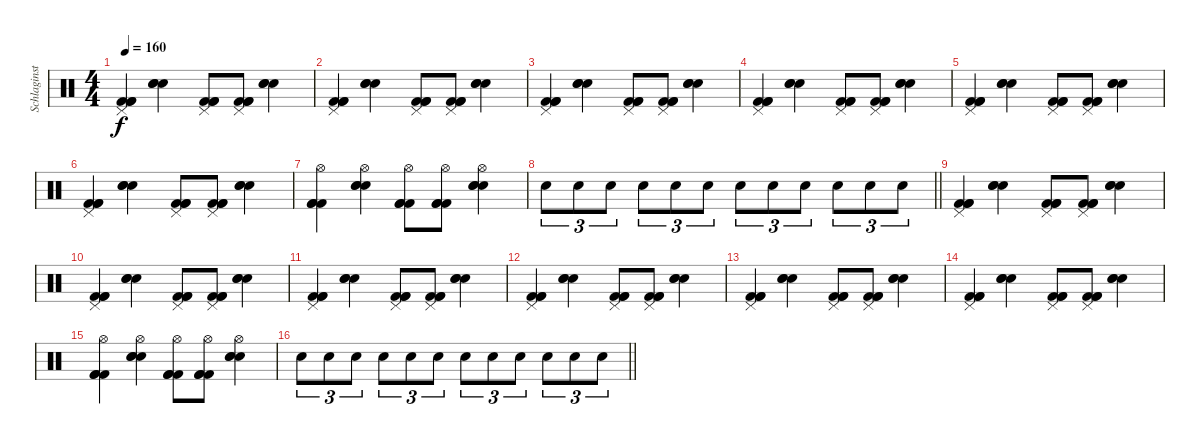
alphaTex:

\track ("Schlaginstrumente - Auswahl" "Schlaginst") {instrument percussion}
\staff {score}
\articulation defaults
\ts (4 4)
\tempo 160
\clef neutral
\ks c
("Kick (hit) 2" "Kick (hit) 2" "Kick (hit) 2" "Pedal Hi-Hat (hit)").4{dy f} ("Snare (hit) 2" "Snare (hit) 2" "Snare (hit) 2").4 ("Kick (hit) 2" "Kick (hit) 2" "Kick (hit) 2" "Pedal Hi-Hat (hit)").8 ("Kick (hit) 2" "Kick (hit) 2" "Kick (hit) 2" "Pedal Hi-Hat (hit)").8 ("Snare (hit) 2" "Snare (hit) 2" "Snare (hit) 2").4 |
("Kick (hit) 2" "Kick (hit) 2" "Kick (hit) 2" "Pedal Hi-Hat (hit)").4 ("Snare (hit) 2" "Snare (hit) 2" "Snare (hit) 2").4 ("Kick (hit) 2" "Kick (hit) 2" "Kick (hit) 2" "Pedal Hi-Hat (hit)").8 ("Kick (hit) 2" "Kick (hit) 2" "Kick (hit) 2" "Pedal Hi-Hat (hit)").8 ("Snare (hit) 2" "Snare (hit) 2" "Snare (hit) 2").4 |
("Kick (hit) 2" "Kick (hit) 2" "Kick (hit) 2" "Pedal Hi-Hat (hit)").4 ("Snare (hit) 2" "Snare (hit) 2" "Snare (hit) 2").4 ("Kick (hit) 2" "Kick (hit) 2" "Kick (hit) 2" "Pedal Hi-Hat (hit)").8 ("Kick (hit) 2" "Kick (hit) 2" "Kick (hit) 2" "Pedal Hi-Hat (hit)").8 ("Snare (hit) 2" "Snare (hit) 2" "Snare (hit) 2").4 |
("Kick (hit) 2" "Kick (hit) 2" "Kick (hit) 2" "Pedal Hi-Hat (hit)").4 ("Snare (hit) 2" "Snare (hit) 2" "Snare (hit) 2").4 ("Kick (hit) 2" "Kick (hit) 2" "Kick (hit) 2" "Pedal Hi-Hat (hit)").8 ("Kick (hit) 2" "Kick (hit) 2" "Kick (hit) 2" "Pedal Hi-Hat (hit)").8 ("Snare (hit) 2" "Snare (hit) 2" "Snare (hit) 2").4 |
("Kick (hit) 2" "Kick (hit) 2" "Kick (hit) 2" "Pedal Hi-Hat (hit)").4 ("Snare (hit) 2" "Snare (hit) 2" "Snare (hit) 2").4 ("Kick (hit) 2" "Kick (hit) 2" "Kick (hit) 2" "Pedal Hi-Hat (hit)").8 ("Kick (hit) 2" "Kick (hit) 2" "Kick (hit) 2" "Pedal Hi-Hat (hit)").8 ("Snare (hit) 2" "Snare (hit) 2" "Snare (hit) 2").4 |
("Kick (hit) 2" "Kick (hit) 2" "Kick (hit) 2" "Pedal Hi-Hat (hit)").4 ("Snare (hit) 2" "Snare (hit) 2" "Snare (hit) 2").4 ("Kick (hit) 2" "Kick (hit) 2" "Kick (hit) 2" "Pedal Hi-Hat (hit)").8 ("Kick (hit) 2" "Kick (hit) 2" "Kick (hit) 2" "Pedal Hi-Hat (hit)").8 ("Snare (hit) 2" "Snare (hit) 2" "Snare (hit) 2").4 |
("Kick (hit) 2" "Kick (hit) 2" "Kick (hit) 2" "Hi-Hat (open)").4 ("Snare (hit) 2" "Snare (hit) 2" "Snare (hit) 2" "Hi-Hat (open)").4 ("Kick (hit) 2" "Kick (hit) 2" "Kick (hit) 2" "Hi-Hat (open)").8 ("Kick (hit) 2" "Kick (hit) 2" "Kick (hit) 2" "Hi-Hat (open)").8 ("Snare (hit) 2" "Snare (hit) 2" "Snare (hit) 2" "Hi-Hat (open)").4 |
\barLineRight lightlight "Snare (hit) 2".8{tu (3 2)} "Snare (hit) 2".8{tu (3 2)} "Snare (hit) 2".8{tu (3 2)} "Snare (hit) 2".8{tu (3 2)} "Snare (hit) 2".8{tu (3 2)} "Snare (hit) 2".8{tu (3 2)} "Snare (hit) 2".8{tu (3 2)} "Snare (hit) 2".8{tu (3 2)} "Snare (hit) 2".8{tu (3 2)} "Snare (hit) 2".8{tu (3 2)} "Snare (hit) 2".8{tu (3 2)} "Snare (hit) 2".8{tu (3 2)}
|
("Kick (hit) 2" "Kick (hit) 2" "Kick (hit) 2" "Pedal Hi-Hat (hit)").4 ("Snare (hit) 2" "Snare (hit) 2" "Snare (hit) 2").4 ("Kick (hit) 2" "Kick (hit) 2" "Kick (hit) 2" "Pedal Hi-Hat (hit)").8 ("Kick (hit) 2" "Kick (hit) 2" "Kick (hit) 2" "Pedal Hi-Hat (hit)").8 ("Snare (hit) 2" "Snare (hit) 2" "Snare (hit) 2").4 |
("Kick (hit) 2" "Kick (hit) 2" "Kick (hit) 2" "Pedal Hi-Hat (hit)").4 ("Snare (hit) 2" "Snare (hit) 2" "Snare (hit) 2").4 ("Kick (hit) 2" "Kick (hit) 2" "Kick (hit) 2" "Pedal Hi-Hat (hit)").8 ("Kick (hit) 2" "Kick (hit) 2" "Kick (hit) 2" "Pedal Hi-Hat (hit)").8 ("Snare (hit) 2" "Snare (hit) 2" "Snare (hit) 2").4 |
("Kick (hit) 2" "Kick (hit) 2" "Kick (hit) 2" "Pedal Hi-Hat (hit)").4 ("Snare (hit) 2" "Snare (hit) 2" "Snare (hit) 2").4 ("Kick (hit) 2" "Kick (hit) 2" "Kick (hit) 2" "Pedal Hi-Hat (hit)").8 ("Kick (hit) 2" "Kick (hit) 2" "Kick (hit) 2" "Pedal Hi-Hat (hit)").8 ("Snare (hit) 2" "Snare (hit) 2" "Snare (hit) 2").4 |
("Kick (hit) 2" "Kick (hit) 2" "Kick (hit) 2" "Pedal Hi-Hat (hit)").4 ("Snare (hit) 2" "Snare (hit) 2" "Snare (hit) 2").4 ("Kick (hit) 2" "Kick (hit) 2" "Kick (hit) 2" "Pedal Hi-Hat (hit)").8 ("Kick (hit) 2" "Kick (hit) 2" "Kick (hit) 2" "Pedal Hi-Hat (hit)").8 ("Snare (hit) 2" "Snare (hit) 2" "Snare (hit) 2").4 |
("Kick (hit) 2" "Kick (hit) 2" "Kick (hit) 2" "Pedal Hi-Hat (hit)").4 ("Snare (hit) 2" "Snare (hit) 2" "Snare (hit) 2").4 ("Kick (hit) 2" "Kick (hit) 2" "Kick (hit) 2" "Pedal Hi-Hat (hit)").8 ("Kick (hit) 2" "Kick (hit) 2" "Kick (hit) 2" "Pedal Hi-Hat (hit)").8 ("Snare (hit) 2" "Snare (hit) 2" "Snare (hit) 2").4 |
("Kick (hit) 2" "Kick (hit) 2" "Kick (hit) 2" "Pedal Hi-Hat (hit)").4 ("Snare (hit) 2" "Snare (hit) 2" "Snare (hit) 2").4 ("Kick (hit) 2" "Kick (hit) 2" "Kick (hit) 2" "Pedal Hi-Hat (hit)").8 ("Kick (hit) 2" "Kick (hit) 2" "Kick (hit) 2" "Pedal Hi-Hat (hit)").8 ("Snare (hit) 2" "Snare (hit) 2" "Snare (hit) 2").4 |
("Kick (hit) 2" "Kick (hit) 2" "Kick (hit) 2" "Hi-Hat (open)").4 ("Snare (hit) 2" "Snare (hit) 2" "Snare (hit) 2" "Hi-Hat (open)").4 ("Kick (hit) 2" "Kick (hit) 2" "Kick (hit) 2" "Hi-Hat (open)").8 ("Kick (hit) 2" "Kick (hit) 2" "Kick (hit) 2" "Hi-Hat (open)").8 ("Snare (hit) 2" "Snare (hit) 2" "Snare (hit) 2" "Hi-Hat (open)").4 |
\barLineRight lightlight "Snare (hit) 2".8{tu (3 2)} "Snare (hit) 2".8{tu (3 2)} "Snare (hit) 2".8{tu (3 2)} "Snare (hit) 2".8{tu (3 2)} "Snare (hit) 2".8{tu (3 2)} "Snare (hit) 2".8{tu (3 2)} "Snare (hit) 2".8{tu (3 2)} "Snare (hit) 2".8{tu (3 2)} "Snare (hit) 2".8{tu (3 2)} "Snare (hit) 2".8{tu (3 2)} "Snare (hit) 2".8{tu (3 2)} "Snare (hit) 2".8{tu (3 2)}
